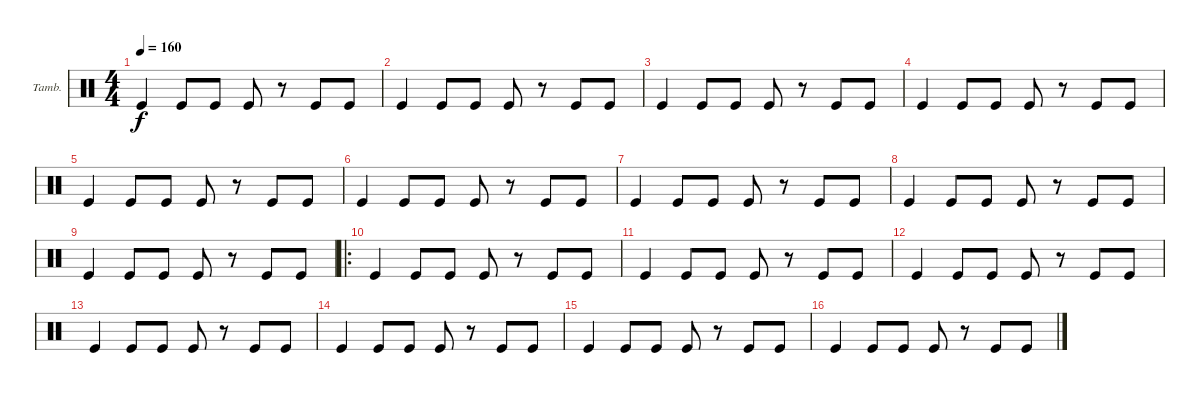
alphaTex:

\bracketExtendMode groupsimilarinstruments
\firstSystemTrackNameOrientation horizontal
\otherSystemsTrackNameOrientation horizontal
\track ("Tambourine" "Tamb.") {instrument percussion}
\staff {score}
\articulation defaults
\ts (4 4)
\tempo 160
\clef neutral
\ks c "Kick (hit)".4{dy f} "Kick (hit)".8 "Kick (hit)".8 "Kick (hit)".8
r.8 "Kick (hit)".8 "Kick (hit)".8 |
"Kick (hit)".4 "Kick (hit)".8 "Kick (hit)".8 "Kick (hit)".8 r.8 "Kick (hit)".8 "Kick (hit)".8 |
"Kick (hit)".4 "Kick (hit)".8 "Kick (hit)".8 "Kick (hit)".8 r.8 "Kick (hit)".8 "Kick (hit)".8 |
"Kick (hit)".4 "Kick (hit)".8 "Kick (hit)".8 "Kick (hit)".8 r.8 "Kick (hit)".8 "Kick (hit)".8 |
"Kick (hit)".4 "Kick (hit)".8 "Kick (hit)".8 "Kick (hit)".8 r.8 "Kick (hit)".8 "Kick (hit)".8 |
"Kick (hit)".4 "Kick (hit)".8 "Kick (hit)".8 "Kick (hit)".8 r.8 "Kick (hit)".8 "Kick (hit)".8 |
"Kick (hit)".4 "Kick (hit)".8 "Kick (hit)".8 "Kick (hit)".8 r.8 "Kick (hit)".8 "Kick (hit)".8 |
"Kick (hit)".4 "Kick (hit)".8 "Kick (hit)".8 "Kick (hit)".8 r.8 "Kick (hit)".8 "Kick (hit)".8 |
"Kick (hit)".4 "Kick (hit)".8 "Kick (hit)".8 "Kick (hit)".8 r.8 "Kick (hit)".8 "Kick (hit)".8 |
\ro "Kick (hit)".4 "Kick (hit)".8 "Kick (hit)".8 "Kick (hit)".8
r.8 "Kick (hit)".8 "Kick (hit)".8 |
"Kick (hit)".4 "Kick (hit)".8 "Kick (hit)".8 "Kick (hit)".8 r.8 "Kick (hit)".8 "Kick (hit)".8 |
"Kick (hit)".4 "Kick (hit)".8 "Kick (hit)".8 "Kick (hit)".8 r.8 "Kick (hit)".8 "Kick (hit)".8 |
"Kick (hit)".4 "Kick (hit)".8 "Kick (hit)".8 "Kick (hit)".8 r.8 "Kick (hit)".8 "Kick (hit)".8 |
"Kick (hit)".4 "Kick (hit)".8 "Kick (hit)".8 "Kick (hit)".8 r.8 "Kick (hit)".8 "Kick (hit)".8 |
"Kick (hit)".4 "Kick (hit)".8 "Kick (hit)".8 "Kick (hit)".8 r.8 "Kick (hit)".8 "Kick (hit)".8 |
"Kick (hit)".4 "Kick (hit)".8 "Kick (hit)".8 "Kick (hit)".8 r.8 "Kick (hit)".8 "Kick (hit)".8
